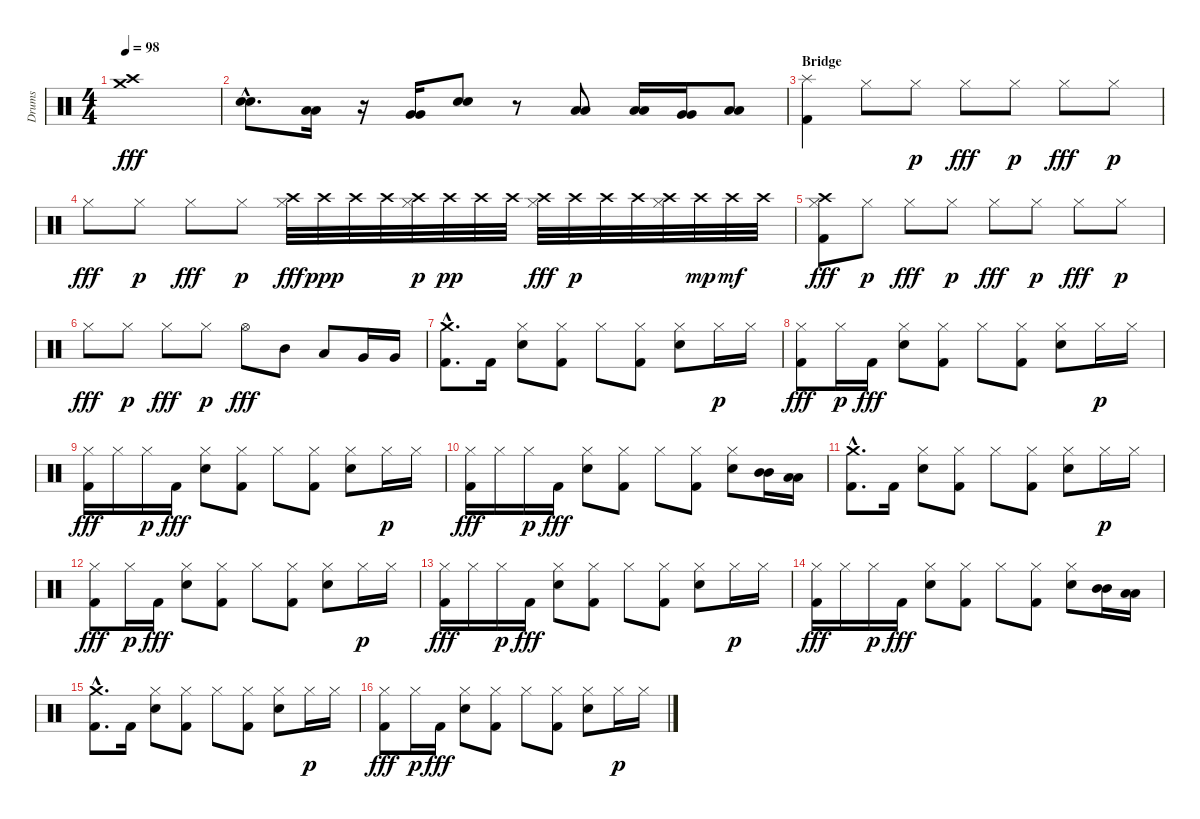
\track ("Drums" "Drums") {instrument percussion}
\staff {score}
\articulation defaults
\ts (4 4)
\tempo 98
\clef neutral
\ks c
("Crash high (hit)" "Crash medium (hit)").1{dy fff} |
("Electric Snare (hit)"{hac} "Electric Snare (hit)"{hac}).8{d} ("Low Tom (hit)" "Low Tom (hit)").16 r.16 ("Very Low Tom (hit)" "Very Low Tom (hit)").16 ("Electric Snare (hit)" "Electric Snare (hit)").8 r.8 ("Low Tom (hit)" "Low Tom (hit)").8 ("Low Tom (hit)" "Low Tom (hit)").16 ("Very Low Tom (hit)" "Very Low Tom (hit)").16 ("Low Floor Tom (hit)" "Low Floor Tom (hit)").8 |
\section ("" "Bridge")
("Splash (hit)" "Kick (hit) 2").4 "Hi-Hat (closed)".8 "Hi-Hat (closed)".8{dy p} "Hi-Hat (closed)".8{dy fff} "Hi-Hat (closed)".8{dy p} "Hi-Hat (closed)".8{dy fff} "Hi-Hat (closed)".8{dy p} |
"Hi-Hat (closed)".8{dy fff} "Hi-Hat (closed)".8{dy p} "Hi-Hat (closed)".8{dy fff} "Hi-Hat (closed)".8{dy p} ("Crash high (hit)" "Hi-Hat (closed)").32{dy fff} "Crash high (hit)".32{dy ppp} "Crash high (hit)".32 "Crash high (hit)".32 ("Crash high (hit)" "Hi-Hat (closed)").32{dy p} "Crash high (hit)".32{dy pp} "Crash high (hit)".32 "Crash high (hit)".32 ("Crash high (hit)" "Hi-Hat (closed)").32{dy fff} "Crash high (hit)".32{dy p} "Crash high (hit)".32 "Crash high (hit)".32 ("Crash high (hit)" "Hi-Hat (closed)").32 "Crash high (hit)".32{dy mp} "Crash high (hit)".32{dy mf} "Crash high (hit)".32 |
("Crash high (hit)" "Hi-Hat (closed)" "Kick (hit) 2").8{dy fff} "Hi-Hat (closed)".8{dy p} "Hi-Hat (closed)".8{dy fff} "Hi-Hat (closed)".8{dy p} "Hi-Hat (closed)".8{dy fff} "Hi-Hat (closed)".8{dy p} "Hi-Hat (closed)".8{dy fff} "Hi-Hat (closed)".8{dy p} |
"Hi-Hat (closed)".8{dy fff} "Hi-Hat (closed)".8{dy p} "Hi-Hat (closed)".8{dy fff} "Hi-Hat (closed)".8{dy p} "Hi-Hat (open)".8{dy fff} "Mid Tom (hit)".8 "Low Tom (hit)".8 "Very Low Tom (hit)".16 "Very Low Tom (hit)".16 |
("Crash medium (hit)"{hac} "Kick (hit) 2"{hac}).8{d} "Kick (hit) 2".16 ("Hi-Hat (closed)" "Electric Snare (hit)").8 ("Hi-Hat (closed)" "Kick (hit) 2").8 "Hi-Hat (closed)".8 ("Hi-Hat (closed)" "Kick (hit) 2").8 ("Hi-Hat (closed)" "Electric Snare (hit)").8 "Hi-Hat (closed)".16{dy p} "Hi-Hat (closed)".16 |
("Hi-Hat (closed)" "Kick (hit) 2").8{dy fff} "Hi-Hat (closed)".16{dy p} "Kick (hit) 2".16{dy fff} ("Hi-Hat (closed)" "Electric Snare (hit)").8 ("Hi-Hat (closed)" "Kick (hit) 2").8 "Hi-Hat (closed)".8 ("Hi-Hat (closed)" "Kick (hit) 2").8 ("Hi-Hat (closed)" "Electric Snare (hit)").8 "Hi-Hat (closed)".16{dy p} "Hi-Hat (closed)".16 |
("Hi-Hat (closed)" "Kick (hit) 2").16{dy fff} "Hi-Hat (closed)".16 "Hi-Hat (closed)".16{dy p} "Kick (hit) 2".16{dy fff} ("Hi-Hat (closed)" "Electric Snare (hit)").8 ("Hi-Hat (closed)" "Kick (hit) 2").8 "Hi-Hat (closed)".8 ("Hi-Hat (closed)" "Kick (hit) 2").8 ("Hi-Hat (closed)" "Electric Snare (hit)").8 "Hi-Hat (closed)".16{dy p} "Hi-Hat (closed)".16 |
("Hi-Hat (closed)" "Kick (hit) 2").16{dy fff} "Hi-Hat (closed)".16 "Hi-Hat (closed)".16{dy p} "Kick (hit) 2".16{dy fff} ("Hi-Hat (closed)" "Electric Snare (hit)").8 ("Hi-Hat (closed)" "Kick (hit) 2").8 "Hi-Hat (closed)".8 ("Hi-Hat (closed)" "Kick (hit) 2").8 ("Hi-Hat (closed)" "Electric Snare (hit)").8 ("Mid Tom (hit)" "Mid Tom (hit)").16 ("Low Tom (hit)" "Low Tom (hit)").16 |
("Crash medium (hit)"{hac} "Kick (hit) 2"{hac}).8{d} "Kick (hit) 2".16 ("Hi-Hat (closed)" "Electric Snare (hit)").8 ("Hi-Hat (closed)" "Kick (hit) 2").8 "Hi-Hat (closed)".8 ("Hi-Hat (closed)" "Kick (hit) 2").8 ("Hi-Hat (closed)" "Electric Snare (hit)").8 "Hi-Hat (closed)".16{dy p} "Hi-Hat (closed)".16 |
("Hi-Hat (closed)" "Kick (hit) 2").8{dy fff} "Hi-Hat (closed)".16{dy p} "Kick (hit) 2".16{dy fff} ("Hi-Hat (closed)" "Electric Snare (hit)").8 ("Hi-Hat (closed)" "Kick (hit) 2").8 "Hi-Hat (closed)".8 ("Hi-Hat (closed)" "Kick (hit) 2").8 ("Hi-Hat (closed)" "Electric Snare (hit)").8 "Hi-Hat (closed)".16{dy p} "Hi-Hat (closed)".16 |
("Hi-Hat (closed)" "Kick (hit) 2").16{dy fff} "Hi-Hat (closed)".16 "Hi-Hat (closed)".16{dy p} "Kick (hit) 2".16{dy fff} ("Hi-Hat (closed)" "Electric Snare (hit)").8 ("Hi-Hat (closed)" "Kick (hit) 2").8 "Hi-Hat (closed)".8 ("Hi-Hat (closed)" "Kick (hit) 2").8 ("Hi-Hat (closed)" "Electric Snare (hit)").8 "Hi-Hat (closed)".16{dy p} "Hi-Hat (closed)".16 |
("Hi-Hat (closed)" "Kick (hit) 2").16{dy fff} "Hi-Hat (closed)".16 "Hi-Hat (closed)".16{dy p} "Kick (hit) 2".16{dy fff} ("Hi-Hat (closed)" "Electric Snare (hit)").8 ("Hi-Hat (closed)" "Kick (hit) 2").8 "Hi-Hat (closed)".8 ("Hi-Hat (closed)" "Kick (hit) 2").8 ("Hi-Hat (closed)" "Electric Snare (hit)").8 ("Mid Tom (hit)" "Mid Tom (hit)").16 ("Low Tom (hit)" "Low Tom (hit)").16 |
("Crash medium (hit)"{hac} "Kick (hit) 2"{hac}).8{d} "Kick (hit) 2".16 ("Hi-Hat (closed)" "Electric Snare (hit)").8 ("Hi-Hat (closed)" "Kick (hit) 2").8 "Hi-Hat (closed)".8 ("Hi-Hat (closed)" "Kick (hit) 2").8 ("Hi-Hat (closed)" "Electric Snare (hit)").8 "Hi-Hat (closed)".16{dy p} "Hi-Hat (closed)".16 |
("Hi-Hat (closed)" "Kick (hit) 2").8{dy fff} "Hi-Hat (closed)".16{dy p} "Kick (hit) 2".16{dy fff} ("Hi-Hat (closed)" "Electric Snare (hit)").8 ("Hi-Hat (closed)" "Kick (hit) 2").8 "Hi-Hat (closed)".8 ("Hi-Hat (closed)" "Kick (hit) 2").8 ("Hi-Hat (closed)" "Electric Snare (hit)").8 "Hi-Hat (closed)".16{dy p} "Hi-Hat (closed)".16
